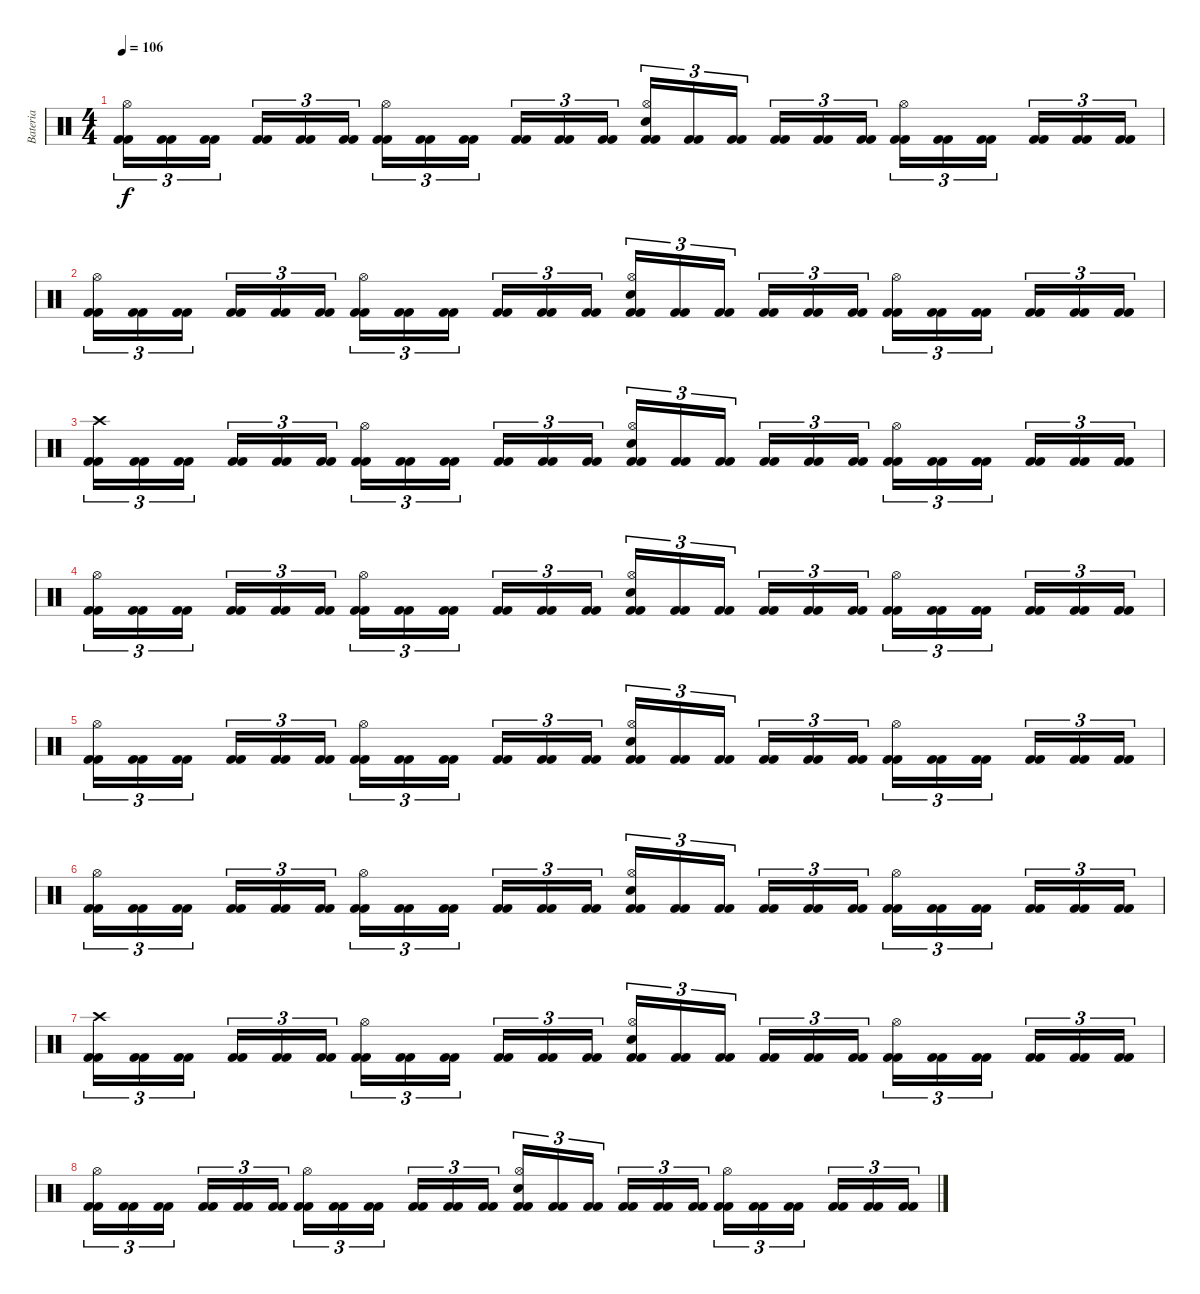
\track ("Bateria" "Bateria") {instrument percussion}
\staff {score}
\articulation defaults
\ts (4 4)
\tempo 106
\clef neutral
\ks c
("Kick (hit) 2" "Kick (hit) 2" "Hi-Hat (open)").16{tu (3 2) dy f} ("Kick (hit) 2" "Kick (hit) 2").16{tu (3 2)} ("Kick (hit) 2" "Kick (hit) 2").16{tu (3 2)} ("Kick (hit) 2" "Kick (hit) 2").16{tu (3 2)} ("Kick (hit) 2" "Kick (hit) 2").16{tu (3 2)} ("Kick (hit) 2" "Kick (hit) 2").16{tu (3 2)} ("Kick (hit) 2" "Kick (hit) 2" "Hi-Hat (open)").16{tu (3 2)} ("Kick (hit) 2" "Kick (hit) 2").16{tu (3 2)} ("Kick (hit) 2" "Kick (hit) 2").16{tu (3 2)} ("Kick (hit) 2" "Kick (hit) 2").16{tu (3 2)} ("Kick (hit) 2" "Kick (hit) 2").16{tu (3 2)} ("Kick (hit) 2" "Kick (hit) 2").16{tu (3 2)} ("Kick (hit) 2" "Kick (hit) 2" "Snare (hit) 2" "Hi-Hat (open)").16{tu (3 2)} ("Kick (hit) 2" "Kick (hit) 2").16{tu (3 2)} ("Kick (hit) 2" "Kick (hit) 2").16{tu (3 2)} ("Kick (hit) 2" "Kick (hit) 2").16{tu (3 2)} ("Kick (hit) 2" "Kick (hit) 2").16{tu (3 2)} ("Kick (hit) 2" "Kick (hit) 2").16{tu (3 2)} ("Kick (hit) 2" "Kick (hit) 2" "Hi-Hat (open)").16{tu (3 2)} ("Kick (hit) 2" "Kick (hit) 2").16{tu (3 2)} ("Kick (hit) 2" "Kick (hit) 2").16{tu (3 2)} ("Kick (hit) 2" "Kick (hit) 2").16{tu (3 2)} ("Kick (hit) 2" "Kick (hit) 2").16{tu (3 2)} ("Kick (hit) 2" "Kick (hit) 2").16{tu (3 2)} |
("Kick (hit) 2" "Kick (hit) 2" "Hi-Hat (open)").16{tu (3 2)} ("Kick (hit) 2" "Kick (hit) 2").16{tu (3 2)} ("Kick (hit) 2" "Kick (hit) 2").16{tu (3 2)} ("Kick (hit) 2" "Kick (hit) 2").16{tu (3 2)} ("Kick (hit) 2" "Kick (hit) 2").16{tu (3 2)} ("Kick (hit) 2" "Kick (hit) 2").16{tu (3 2)} ("Kick (hit) 2" "Kick (hit) 2" "Hi-Hat (open)").16{tu (3 2)} ("Kick (hit) 2" "Kick (hit) 2").16{tu (3 2)} ("Kick (hit) 2" "Kick (hit) 2").16{tu (3 2)} ("Kick (hit) 2" "Kick (hit) 2").16{tu (3 2)} ("Kick (hit) 2" "Kick (hit) 2").16{tu (3 2)} ("Kick (hit) 2" "Kick (hit) 2").16{tu (3 2)} ("Kick (hit) 2" "Kick (hit) 2" "Snare (hit) 2" "Hi-Hat (open)").16{tu (3 2)} ("Kick (hit) 2" "Kick (hit) 2").16{tu (3 2)} ("Kick (hit) 2" "Kick (hit) 2").16{tu (3 2)} ("Kick (hit) 2" "Kick (hit) 2").16{tu (3 2)} ("Kick (hit) 2" "Kick (hit) 2").16{tu (3 2)} ("Kick (hit) 2" "Kick (hit) 2").16{tu (3 2)} ("Kick (hit) 2" "Kick (hit) 2" "Hi-Hat (open)").16{tu (3 2)} ("Kick (hit) 2" "Kick (hit) 2").16{tu (3 2)} ("Kick (hit) 2" "Kick (hit) 2").16{tu (3 2)} ("Kick (hit) 2" "Kick (hit) 2").16{tu (3 2)} ("Kick (hit) 2" "Kick (hit) 2").16{tu (3 2)} ("Kick (hit) 2" "Kick (hit) 2").16{tu (3 2)} |
("Kick (hit) 2" "Kick (hit) 2" "Crash high (hit)").16{tu (3 2)} ("Kick (hit) 2" "Kick (hit) 2").16{tu (3 2)} ("Kick (hit) 2" "Kick (hit) 2").16{tu (3 2)} ("Kick (hit) 2" "Kick (hit) 2").16{tu (3 2)} ("Kick (hit) 2" "Kick (hit) 2").16{tu (3 2)} ("Kick (hit) 2" "Kick (hit) 2").16{tu (3 2)} ("Kick (hit) 2" "Kick (hit) 2" "Hi-Hat (open)").16{tu (3 2)} ("Kick (hit) 2" "Kick (hit) 2").16{tu (3 2)} ("Kick (hit) 2" "Kick (hit) 2").16{tu (3 2)} ("Kick (hit) 2" "Kick (hit) 2").16{tu (3 2)} ("Kick (hit) 2" "Kick (hit) 2").16{tu (3 2)} ("Kick (hit) 2" "Kick (hit) 2").16{tu (3 2)} ("Kick (hit) 2" "Kick (hit) 2" "Snare (hit) 2" "Hi-Hat (open)").16{tu (3 2)} ("Kick (hit) 2" "Kick (hit) 2").16{tu (3 2)} ("Kick (hit) 2" "Kick (hit) 2").16{tu (3 2)} ("Kick (hit) 2" "Kick (hit) 2").16{tu (3 2)} ("Kick (hit) 2" "Kick (hit) 2").16{tu (3 2)} ("Kick (hit) 2" "Kick (hit) 2").16{tu (3 2)} ("Kick (hit) 2" "Kick (hit) 2" "Hi-Hat (open)").16{tu (3 2)} ("Kick (hit) 2" "Kick (hit) 2").16{tu (3 2)} ("Kick (hit) 2" "Kick (hit) 2").16{tu (3 2)} ("Kick (hit) 2" "Kick (hit) 2").16{tu (3 2)} ("Kick (hit) 2" "Kick (hit) 2").16{tu (3 2)} ("Kick (hit) 2" "Kick (hit) 2").16{tu (3 2)} |
("Kick (hit) 2" "Kick (hit) 2" "Hi-Hat (open)").16{tu (3 2)} ("Kick (hit) 2" "Kick (hit) 2").16{tu (3 2)} ("Kick (hit) 2" "Kick (hit) 2").16{tu (3 2)} ("Kick (hit) 2" "Kick (hit) 2").16{tu (3 2)} ("Kick (hit) 2" "Kick (hit) 2").16{tu (3 2)} ("Kick (hit) 2" "Kick (hit) 2").16{tu (3 2)} ("Kick (hit) 2" "Kick (hit) 2" "Hi-Hat (open)").16{tu (3 2)} ("Kick (hit) 2" "Kick (hit) 2").16{tu (3 2)} ("Kick (hit) 2" "Kick (hit) 2").16{tu (3 2)} ("Kick (hit) 2" "Kick (hit) 2").16{tu (3 2)} ("Kick (hit) 2" "Kick (hit) 2").16{tu (3 2)} ("Kick (hit) 2" "Kick (hit) 2").16{tu (3 2)} ("Kick (hit) 2" "Kick (hit) 2" "Snare (hit) 2" "Hi-Hat (open)").16{tu (3 2)} ("Kick (hit) 2" "Kick (hit) 2").16{tu (3 2)} ("Kick (hit) 2" "Kick (hit) 2").16{tu (3 2)} ("Kick (hit) 2" "Kick (hit) 2").16{tu (3 2)} ("Kick (hit) 2" "Kick (hit) 2").16{tu (3 2)} ("Kick (hit) 2" "Kick (hit) 2").16{tu (3 2)} ("Kick (hit) 2" "Kick (hit) 2" "Hi-Hat (open)").16{tu (3 2)} ("Kick (hit) 2" "Kick (hit) 2").16{tu (3 2)} ("Kick (hit) 2" "Kick (hit) 2").16{tu (3 2)} ("Kick (hit) 2" "Kick (hit) 2").16{tu (3 2)} ("Kick (hit) 2" "Kick (hit) 2").16{tu (3 2)} ("Kick (hit) 2" "Kick (hit) 2").16{tu (3 2)} |
("Kick (hit) 2" "Kick (hit) 2" "Hi-Hat (open)").16{tu (3 2)} ("Kick (hit) 2" "Kick (hit) 2").16{tu (3 2)} ("Kick (hit) 2" "Kick (hit) 2").16{tu (3 2)} ("Kick (hit) 2" "Kick (hit) 2").16{tu (3 2)} ("Kick (hit) 2" "Kick (hit) 2").16{tu (3 2)} ("Kick (hit) 2" "Kick (hit) 2").16{tu (3 2)} ("Kick (hit) 2" "Kick (hit) 2" "Hi-Hat (open)").16{tu (3 2)} ("Kick (hit) 2" "Kick (hit) 2").16{tu (3 2)} ("Kick (hit) 2" "Kick (hit) 2").16{tu (3 2)} ("Kick (hit) 2" "Kick (hit) 2").16{tu (3 2)} ("Kick (hit) 2" "Kick (hit) 2").16{tu (3 2)} ("Kick (hit) 2" "Kick (hit) 2").16{tu (3 2)} ("Kick (hit) 2" "Kick (hit) 2" "Snare (hit) 2" "Hi-Hat (open)").16{tu (3 2)} ("Kick (hit) 2" "Kick (hit) 2").16{tu (3 2)} ("Kick (hit) 2" "Kick (hit) 2").16{tu (3 2)} ("Kick (hit) 2" "Kick (hit) 2").16{tu (3 2)} ("Kick (hit) 2" "Kick (hit) 2").16{tu (3 2)} ("Kick (hit) 2" "Kick (hit) 2").16{tu (3 2)} ("Kick (hit) 2" "Kick (hit) 2" "Hi-Hat (open)").16{tu (3 2)} ("Kick (hit) 2" "Kick (hit) 2").16{tu (3 2)} ("Kick (hit) 2" "Kick (hit) 2").16{tu (3 2)} ("Kick (hit) 2" "Kick (hit) 2").16{tu (3 2)} ("Kick (hit) 2" "Kick (hit) 2").16{tu (3 2)} ("Kick (hit) 2" "Kick (hit) 2").16{tu (3 2)} |
("Kick (hit) 2" "Kick (hit) 2" "Hi-Hat (open)").16{tu (3 2)} ("Kick (hit) 2" "Kick (hit) 2").16{tu (3 2)} ("Kick (hit) 2" "Kick (hit) 2").16{tu (3 2)} ("Kick (hit) 2" "Kick (hit) 2").16{tu (3 2)} ("Kick (hit) 2" "Kick (hit) 2").16{tu (3 2)} ("Kick (hit) 2" "Kick (hit) 2").16{tu (3 2)} ("Kick (hit) 2" "Kick (hit) 2" "Hi-Hat (open)").16{tu (3 2)} ("Kick (hit) 2" "Kick (hit) 2").16{tu (3 2)} ("Kick (hit) 2" "Kick (hit) 2").16{tu (3 2)} ("Kick (hit) 2" "Kick (hit) 2").16{tu (3 2)} ("Kick (hit) 2" "Kick (hit) 2").16{tu (3 2)} ("Kick (hit) 2" "Kick (hit) 2").16{tu (3 2)} ("Kick (hit) 2" "Kick (hit) 2" "Snare (hit) 2" "Hi-Hat (open)").16{tu (3 2)} ("Kick (hit) 2" "Kick (hit) 2").16{tu (3 2)} ("Kick (hit) 2" "Kick (hit) 2").16{tu (3 2)} ("Kick (hit) 2" "Kick (hit) 2").16{tu (3 2)} ("Kick (hit) 2" "Kick (hit) 2").16{tu (3 2)} ("Kick (hit) 2" "Kick (hit) 2").16{tu (3 2)} ("Kick (hit) 2" "Kick (hit) 2" "Hi-Hat (open)").16{tu (3 2)} ("Kick (hit) 2" "Kick (hit) 2").16{tu (3 2)} ("Kick (hit) 2" "Kick (hit) 2").16{tu (3 2)} ("Kick (hit) 2" "Kick (hit) 2").16{tu (3 2)} ("Kick (hit) 2" "Kick (hit) 2").16{tu (3 2)} ("Kick (hit) 2" "Kick (hit) 2").16{tu (3 2)} |
("Kick (hit) 2" "Kick (hit) 2" "Crash high (hit)").16{tu (3 2)} ("Kick (hit) 2" "Kick (hit) 2").16{tu (3 2)} ("Kick (hit) 2" "Kick (hit) 2").16{tu (3 2)} ("Kick (hit) 2" "Kick (hit) 2").16{tu (3 2)} ("Kick (hit) 2" "Kick (hit) 2").16{tu (3 2)} ("Kick (hit) 2" "Kick (hit) 2").16{tu (3 2)} ("Kick (hit) 2" "Kick (hit) 2" "Hi-Hat (open)").16{tu (3 2)} ("Kick (hit) 2" "Kick (hit) 2").16{tu (3 2)} ("Kick (hit) 2" "Kick (hit) 2").16{tu (3 2)} ("Kick (hit) 2" "Kick (hit) 2").16{tu (3 2)} ("Kick (hit) 2" "Kick (hit) 2").16{tu (3 2)} ("Kick (hit) 2" "Kick (hit) 2").16{tu (3 2)} ("Kick (hit) 2" "Kick (hit) 2" "Snare (hit) 2" "Hi-Hat (open)").16{tu (3 2)} ("Kick (hit) 2" "Kick (hit) 2").16{tu (3 2)} ("Kick (hit) 2" "Kick (hit) 2").16{tu (3 2)} ("Kick (hit) 2" "Kick (hit) 2").16{tu (3 2)} ("Kick (hit) 2" "Kick (hit) 2").16{tu (3 2)} ("Kick (hit) 2" "Kick (hit) 2").16{tu (3 2)} ("Kick (hit) 2" "Kick (hit) 2" "Hi-Hat (open)").16{tu (3 2)} ("Kick (hit) 2" "Kick (hit) 2").16{tu (3 2)} ("Kick (hit) 2" "Kick (hit) 2").16{tu (3 2)} ("Kick (hit) 2" "Kick (hit) 2").16{tu (3 2)} ("Kick (hit) 2" "Kick (hit) 2").16{tu (3 2)} ("Kick (hit) 2" "Kick (hit) 2").16{tu (3 2)} |
("Kick (hit) 2" "Kick (hit) 2" "Hi-Hat (open)").16{tu (3 2)} ("Kick (hit) 2" "Kick (hit) 2").16{tu (3 2)} ("Kick (hit) 2" "Kick (hit) 2").16{tu (3 2)} ("Kick (hit) 2" "Kick (hit) 2").16{tu (3 2)} ("Kick (hit) 2" "Kick (hit) 2").16{tu (3 2)} ("Kick (hit) 2" "Kick (hit) 2").16{tu (3 2)} ("Kick (hit) 2" "Kick (hit) 2" "Hi-Hat (open)").16{tu (3 2)} ("Kick (hit) 2" "Kick (hit) 2").16{tu (3 2)} ("Kick (hit) 2" "Kick (hit) 2").16{tu (3 2)} ("Kick (hit) 2" "Kick (hit) 2").16{tu (3 2)} ("Kick (hit) 2" "Kick (hit) 2").16{tu (3 2)} ("Kick (hit) 2" "Kick (hit) 2").16{tu (3 2)} ("Kick (hit) 2" "Kick (hit) 2" "Snare (hit) 2" "Hi-Hat (open)").16{tu (3 2)} ("Kick (hit) 2" "Kick (hit) 2").16{tu (3 2)} ("Kick (hit) 2" "Kick (hit) 2").16{tu (3 2)} ("Kick (hit) 2" "Kick (hit) 2").16{tu (3 2)} ("Kick (hit) 2" "Kick (hit) 2").16{tu (3 2)} ("Kick (hit) 2" "Kick (hit) 2").16{tu (3 2)} ("Kick (hit) 2" "Kick (hit) 2" "Hi-Hat (open)").16{tu (3 2)} ("Kick (hit) 2" "Kick (hit) 2").16{tu (3 2)} ("Kick (hit) 2" "Kick (hit) 2").16{tu (3 2)} ("Kick (hit) 2" "Kick (hit) 2").16{tu (3 2)} ("Kick (hit) 2" "Kick (hit) 2").16{tu (3 2)} ("Kick (hit) 2" "Kick (hit) 2").16{tu (3 2)}
